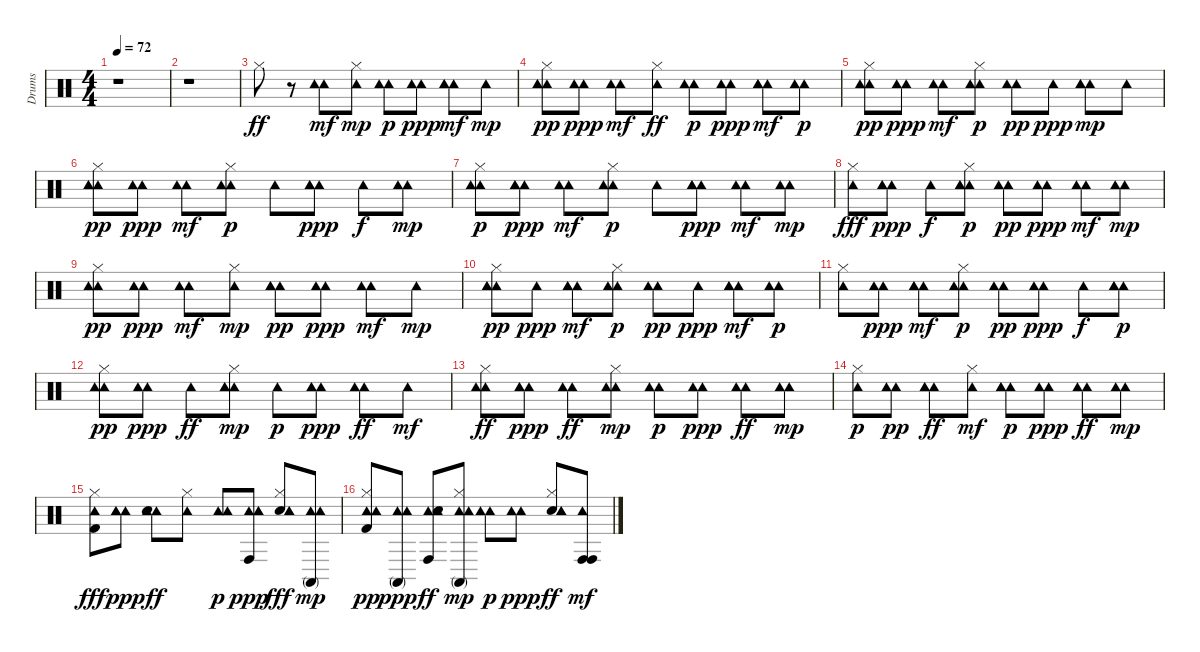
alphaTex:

\track ("Drums" "Drums") {instrument percussion}
\staff {score}
\articulation defaults
\ts (4 4)
\tempo 72
\clef neutral
\ks c
r.1{dy mf} |
r.1 |
"Hi-Hat (closed)".8{dy ff} r.8 ("Tambourine (hit)" "Tambourine (hit)").8{dy mf} ("Tambourine (hit)" "Hi-Hat (closed)").8{dy mp} ("Tambourine (hit)" "Tambourine (hit)").8{dy p} ("Tambourine (hit)" "Tambourine (hit)").8{dy ppp} ("Tambourine (hit)" "Tambourine (hit)" "Tambourine (hit)").8{dy mf} "Tambourine (hit)".8{dy mp} |
("Tambourine (hit)" "Hi-Hat (closed)" "Tambourine (hit)" "Tambourine (hit)").8{dy pp} ("Tambourine (hit)" "Tambourine (hit)").8{dy ppp} ("Tambourine (hit)" "Tambourine (hit)").8{dy mf} ("Tambourine (hit)" "Hi-Hat (closed)").8{dy ff} ("Tambourine (hit)" "Tambourine (hit)").8{dy p} ("Tambourine (hit)" "Tambourine (hit)").8{dy ppp} ("Tambourine (hit)" "Tambourine (hit)" "Tambourine (hit)").8{dy mf} ("Tambourine (hit)" "Tambourine (hit)").8{dy p} |
("Hi-Hat (closed)" "Tambourine (hit)" "Tambourine (hit)").8{dy pp} ("Tambourine (hit)" "Tambourine (hit)").8{dy ppp} ("Tambourine (hit)" "Tambourine (hit)").8{dy mf} ("Hi-Hat (closed)" "Tambourine (hit)" "Tambourine (hit)").8{dy p} ("Tambourine (hit)" "Tambourine (hit)").8{dy pp} "Tambourine (hit)".8{dy ppp} ("Tambourine (hit)" "Tambourine (hit)" "Tambourine (hit)").8{dy mp} "Tambourine (hit)".8 |
("Tambourine (hit)" "Hi-Hat (closed)" "Tambourine (hit)" "Tambourine (hit)").8{dy pp} ("Tambourine (hit)" "Tambourine (hit)").8{dy ppp} ("Tambourine (hit)" "Tambourine (hit)").8{dy mf} ("Hi-Hat (closed)" "Tambourine (hit)" "Tambourine (hit)").8{dy p} "Tambourine (hit)".8 ("Tambourine (hit)" "Tambourine (hit)" "Tambourine (hit)").8{dy ppp} "Tambourine (hit)".8{dy f} ("Tambourine (hit)" "Tambourine (hit)").8{dy mp} |
("Tambourine (hit)" "Hi-Hat (closed)" "Tambourine (hit)").8{dy p} ("Tambourine (hit)" "Tambourine (hit)" "Tambourine (hit)").8{dy ppp} ("Tambourine (hit)" "Tambourine (hit)").8{dy mf} ("Hi-Hat (closed)" "Tambourine (hit)" "Tambourine (hit)").8{dy p} "Tambourine (hit)".8 ("Tambourine (hit)" "Tambourine (hit)" "Tambourine (hit)").8{dy ppp} ("Tambourine (hit)" "Tambourine (hit)").8{dy mf} ("Tambourine (hit)" "Tambourine (hit)").8{dy mp} |
("Tambourine (hit)" "Hi-Hat (closed)").8{dy fff} ("Tambourine (hit)" "Tambourine (hit)" "Tambourine (hit)").8{dy ppp} "Tambourine (hit)".8{dy f} ("Tambourine (hit)" "Hi-Hat (closed)" "Tambourine (hit)" "Tambourine (hit)").8{dy p} ("Tambourine (hit)" "Tambourine (hit)").8{dy pp} ("Tambourine (hit)" "Tambourine (hit)").8{dy ppp} ("Tambourine (hit)" "Tambourine (hit)").8{dy mf} ("Tambourine (hit)" "Tambourine (hit)").8{dy mp} |
("Tambourine (hit)" "Hi-Hat (closed)" "Tambourine (hit)").8{dy pp} ("Tambourine (hit)" "Tambourine (hit)").8{dy ppp} ("Tambourine (hit)" "Tambourine (hit)").8{dy mf} ("Hi-Hat (closed)" "Tambourine (hit)").8{dy mp} ("Tambourine (hit)" "Tambourine (hit)" "Tambourine (hit)").8{dy pp} ("Tambourine (hit)" "Tambourine (hit)").8{dy ppp} ("Tambourine (hit)" "Tambourine (hit)").8{dy mf} "Tambourine (hit)".8{dy mp} |
("Tambourine (hit)" "Hi-Hat (closed)" "Tambourine (hit)" "Tambourine (hit)").8{dy pp} "Tambourine (hit)".8{dy ppp} ("Tambourine (hit)" "Tambourine (hit)" "Tambourine (hit)").8{dy mf} ("Hi-Hat (closed)" "Tambourine (hit)" "Tambourine (hit)").8{dy p} ("Tambourine (hit)" "Tambourine (hit)").8{dy pp} "Tambourine (hit)".8{dy ppp} ("Tambourine (hit)" "Tambourine (hit)" "Tambourine (hit)").8{dy mf} ("Tambourine (hit)" "Tambourine (hit)").8{dy p} |
("Hi-Hat (closed)" "Tambourine (hit)").8 ("Tambourine (hit)" "Tambourine (hit)").8{dy ppp} ("Tambourine (hit)" "Tambourine (hit)" "Tambourine (hit)").8{dy mf} ("Tambourine (hit)" "Hi-Hat (closed)" "Tambourine (hit)").8{dy p} ("Tambourine (hit)" "Tambourine (hit)").8{dy pp} ("Tambourine (hit)" "Tambourine (hit)").8{dy ppp} "Tambourine (hit)".8{dy f} ("Tambourine (hit)" "Tambourine (hit)" "Tambourine (hit)").8{dy p} |
("Hi-Hat (closed)" "Tambourine (hit)" "Tambourine (hit)").8{dy pp} ("Tambourine (hit)" "Tambourine (hit)").8{dy ppp} "Tambourine (hit)".8{dy ff} ("Tambourine (hit)" "Hi-Hat (closed)" "Tambourine (hit)" "Tambourine (hit)").8{dy mp} "Tambourine (hit)".8{dy p} ("Tambourine (hit)" "Tambourine (hit)" "Tambourine (hit)").8{dy ppp} ("Tambourine (hit)" "Tambourine (hit)").8{dy ff} "Tambourine (hit)".8{dy mf} |
("Tambourine (hit)" "Tambourine (hit)" "Hi-Hat (closed)").8{dy ff} ("Tambourine (hit)" "Tambourine (hit)" "Tambourine (hit)").8{dy ppp} ("Tambourine (hit)" "Tambourine (hit)").8{dy ff} ("Hi-Hat (closed)" "Tambourine (hit)" "Tambourine (hit)").8{dy mp} ("Tambourine (hit)" "Tambourine (hit)").8{dy p} ("Tambourine (hit)" "Tambourine (hit)").8{dy ppp} ("Tambourine (hit)" "Tambourine (hit)").8{dy ff} ("Tambourine (hit)" "Tambourine (hit)").8{dy mp} |
("Hi-Hat (closed)" "Tambourine (hit)").8{dy p} ("Tambourine (hit)" "Tambourine (hit)").8{dy pp} ("Tambourine (hit)" "Tambourine (hit)" "Tambourine (hit)").8{dy ff} ("Tambourine (hit)" "Hi-Hat (closed)").8{dy mf} ("Tambourine (hit)" "Tambourine (hit)" "Tambourine (hit)").8{dy p} ("Tambourine (hit)" "Tambourine (hit)").8{dy ppp} ("Tambourine (hit)" "Tambourine (hit)").8{dy ff} ("Tambourine (hit)" "Tambourine (hit)").8{dy mp} |
("Tambourine (hit)" "Kick (hit) 2" "Hi-Hat (closed)").8{dy fff} ("Tambourine (hit)" "Tambourine (hit)" "Tambourine (hit)").8{dy ppp} ("Tambourine (hit)" "Snare (hit) 2" "Tambourine (hit)").8{dy ff} ("Tambourine (hit)" "Hi-Hat (closed)").8 ("Tambourine (hit)" "Tambourine (hit)").8{dy p} ("Tambourine (hit)" "Tambourine (hit)" "Conga high (hit)" "Tambourine (hit)").8{dy ppp} ("Snare (hit) 2" "Tambourine (hit)" "Hi-Hat (closed)" "Tambourine (hit)").8{dy fff} ("Tambourine (hit)" "Conga high (mute)" "Tambourine (hit)").8{dy mp} |
("Hi-Hat (closed)" "Kick (hit) 2" "Tambourine (hit)" "Tambourine (hit)").8{dy pp} ("Tambourine (hit)" "Conga high (mute)" "Tambourine (hit)").8{dy ppp} ("Tambourine (hit)" "Conga high (hit)" "Snare (hit) 2" "Tambourine (hit)").8{dy ff} ("Hi-Hat (closed)" "Conga high (mute)" "Tambourine (hit)" "Tambourine (hit)").8{dy mp} ("Tambourine (hit)" "Tambourine (hit)").8{dy p} ("Tambourine (hit)" "Tambourine (hit)").8{dy ppp} ("Snare (hit) 2" "Tambourine (hit)" "Hi-Hat (closed)" "Tambourine (hit)").8{dy ff} ("Tambourine (hit)" "Conga high (hit)" "Conga high (hit)").8{dy mf}
